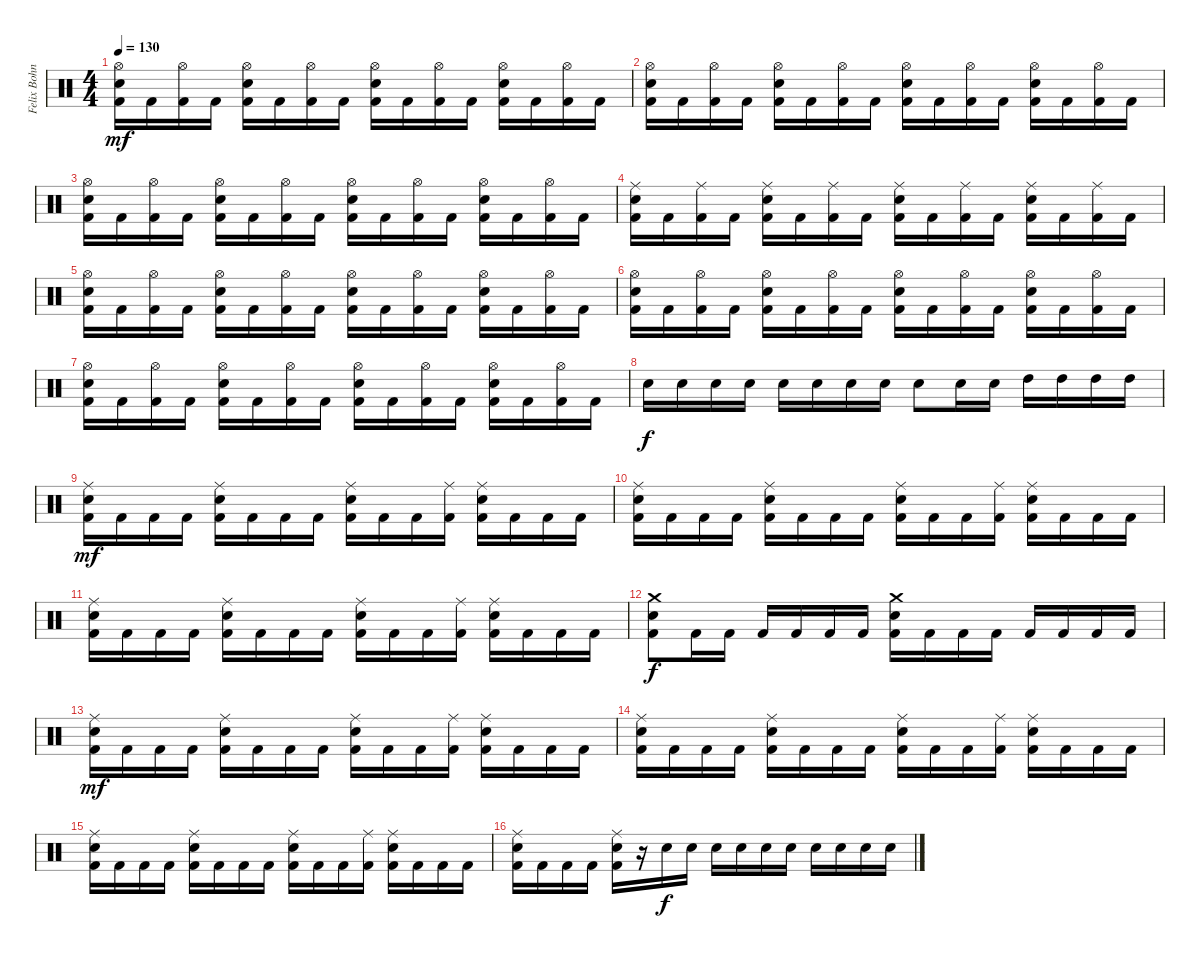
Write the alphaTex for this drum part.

\track ("Felix Bohnke" "Felix Bohn") {instrument percussion}
\staff {score}
\articulation defaults
\ts (4 4)
\tempo 130
\clef neutral
\ks c
("Hi-Hat (open)" "Electric Snare (hit)" "Kick (hit) 2").16{dy mf} "Kick (hit) 2".16 ("Hi-Hat (open)" "Kick (hit) 2").16 "Kick (hit) 2".16 ("Hi-Hat (open)" "Electric Snare (hit)" "Kick (hit) 2").16 "Kick (hit) 2".16 ("Hi-Hat (open)" "Kick (hit) 2").16 "Kick (hit) 2".16 ("Hi-Hat (open)" "Electric Snare (hit)" "Kick (hit) 2").16 "Kick (hit) 2".16 ("Hi-Hat (open)" "Kick (hit) 2").16 "Kick (hit) 2".16 ("Hi-Hat (open)" "Electric Snare (hit)" "Kick (hit) 2").16 "Kick (hit) 2".16 ("Hi-Hat (open)" "Kick (hit) 2").16 "Kick (hit) 2".16 |
("Hi-Hat (open)" "Electric Snare (hit)" "Kick (hit) 2").16 "Kick (hit) 2".16 ("Hi-Hat (open)" "Kick (hit) 2").16 "Kick (hit) 2".16 ("Hi-Hat (open)" "Electric Snare (hit)" "Kick (hit) 2").16 "Kick (hit) 2".16 ("Hi-Hat (open)" "Kick (hit) 2").16 "Kick (hit) 2".16 ("Hi-Hat (open)" "Electric Snare (hit)" "Kick (hit) 2").16 "Kick (hit) 2".16 ("Hi-Hat (open)" "Kick (hit) 2").16 "Kick (hit) 2".16 ("Hi-Hat (open)" "Electric Snare (hit)" "Kick (hit) 2").16 "Kick (hit) 2".16 ("Hi-Hat (open)" "Kick (hit) 2").16 "Kick (hit) 2".16 |
("Hi-Hat (open)" "Electric Snare (hit)" "Kick (hit) 2").16 "Kick (hit) 2".16 ("Hi-Hat (open)" "Kick (hit) 2").16 "Kick (hit) 2".16 ("Hi-Hat (open)" "Electric Snare (hit)" "Kick (hit) 2").16 "Kick (hit) 2".16 ("Hi-Hat (open)" "Kick (hit) 2").16 "Kick (hit) 2".16 ("Hi-Hat (open)" "Electric Snare (hit)" "Kick (hit) 2").16 "Kick (hit) 2".16 ("Hi-Hat (open)" "Kick (hit) 2").16 "Kick (hit) 2".16 ("Hi-Hat (open)" "Electric Snare (hit)" "Kick (hit) 2").16 "Kick (hit) 2".16 ("Hi-Hat (open)" "Kick (hit) 2").16 "Kick (hit) 2".16 |
("Electric Snare (hit)" "Ride (middle)" "Kick (hit) 2").16 "Kick (hit) 2".16 ("Ride (middle)" "Kick (hit) 2").16 "Kick (hit) 2".16 ("Electric Snare (hit)" "Ride (middle)" "Kick (hit) 2").16 "Kick (hit) 2".16 ("Ride (middle)" "Kick (hit) 2").16 "Kick (hit) 2".16 ("Electric Snare (hit)" "Ride (middle)" "Kick (hit) 2").16 "Kick (hit) 2".16 ("Ride (middle)" "Kick (hit) 2").16 "Kick (hit) 2".16 ("Electric Snare (hit)" "Ride (middle)" "Kick (hit) 2").16 "Kick (hit) 2".16 ("Ride (middle)" "Kick (hit) 2").16 "Kick (hit) 2".16 |
("Hi-Hat (open)" "Electric Snare (hit)" "Kick (hit) 2").16 "Kick (hit) 2".16 ("Hi-Hat (open)" "Kick (hit) 2").16 "Kick (hit) 2".16 ("Hi-Hat (open)" "Electric Snare (hit)" "Kick (hit) 2").16 "Kick (hit) 2".16 ("Hi-Hat (open)" "Kick (hit) 2").16 "Kick (hit) 2".16 ("Hi-Hat (open)" "Electric Snare (hit)" "Kick (hit) 2").16 "Kick (hit) 2".16 ("Hi-Hat (open)" "Kick (hit) 2").16 "Kick (hit) 2".16 ("Hi-Hat (open)" "Electric Snare (hit)" "Kick (hit) 2").16 "Kick (hit) 2".16 ("Hi-Hat (open)" "Kick (hit) 2").16 "Kick (hit) 2".16 |
("Hi-Hat (open)" "Electric Snare (hit)" "Kick (hit) 2").16 "Kick (hit) 2".16 ("Hi-Hat (open)" "Kick (hit) 2").16 "Kick (hit) 2".16 ("Hi-Hat (open)" "Electric Snare (hit)" "Kick (hit) 2").16 "Kick (hit) 2".16 ("Hi-Hat (open)" "Kick (hit) 2").16 "Kick (hit) 2".16 ("Hi-Hat (open)" "Electric Snare (hit)" "Kick (hit) 2").16 "Kick (hit) 2".16 ("Hi-Hat (open)" "Kick (hit) 2").16 "Kick (hit) 2".16 ("Hi-Hat (open)" "Electric Snare (hit)" "Kick (hit) 2").16 "Kick (hit) 2".16 ("Hi-Hat (open)" "Kick (hit) 2").16 "Kick (hit) 2".16 |
("Hi-Hat (open)" "Electric Snare (hit)" "Kick (hit) 2").16 "Kick (hit) 2".16 ("Hi-Hat (open)" "Kick (hit) 2").16 "Kick (hit) 2".16 ("Hi-Hat (open)" "Electric Snare (hit)" "Kick (hit) 2").16 "Kick (hit) 2".16 ("Hi-Hat (open)" "Kick (hit) 2").16 "Kick (hit) 2".16 ("Hi-Hat (open)" "Electric Snare (hit)" "Kick (hit) 2").16 "Kick (hit) 2".16 ("Hi-Hat (open)" "Kick (hit) 2").16 "Kick (hit) 2".16 ("Hi-Hat (open)" "Electric Snare (hit)" "Kick (hit) 2").16 "Kick (hit) 2".16 ("Hi-Hat (open)" "Kick (hit) 2").16 "Kick (hit) 2".16 |
"Electric Snare (hit)".16{dy f} "Electric Snare (hit)".16 "Electric Snare (hit)".16 "Electric Snare (hit)".16 "Electric Snare (hit)".16 "Electric Snare (hit)".16 "Electric Snare (hit)".16 "Electric Snare (hit)".16 "Electric Snare (hit)".8 "Electric Snare (hit)".16 "Electric Snare (hit)".16 "High Tom (hit)".16 "High Tom (hit)".16 "High Tom (hit)".16 "High Tom (hit)".16 |
("Ride (middle)" "Electric Snare (hit)" "Kick (hit) 2").16{dy mf} "Kick (hit) 2".16 "Kick (hit) 2".16 "Kick (hit) 2".16 ("Ride (middle)" "Electric Snare (hit)" "Kick (hit) 2").16 "Kick (hit) 2".16 "Kick (hit) 2".16 "Kick (hit) 2".16 ("Ride (middle)" "Electric Snare (hit)" "Kick (hit) 2").16 "Kick (hit) 2".16 "Kick (hit) 2".16 ("Ride (middle)" "Kick (hit) 2").16 ("Ride (middle)" "Electric Snare (hit)" "Kick (hit) 2").16 "Kick (hit) 2".16 "Kick (hit) 2".16 "Kick (hit) 2".16 |
("Ride (middle)" "Electric Snare (hit)" "Kick (hit) 2").16 "Kick (hit) 2".16 "Kick (hit) 2".16 "Kick (hit) 2".16 ("Ride (middle)" "Electric Snare (hit)" "Kick (hit) 2").16 "Kick (hit) 2".16 "Kick (hit) 2".16 "Kick (hit) 2".16 ("Ride (middle)" "Electric Snare (hit)" "Kick (hit) 2").16 "Kick (hit) 2".16 "Kick (hit) 2".16 ("Ride (middle)" "Kick (hit) 2").16 ("Ride (middle)" "Electric Snare (hit)" "Kick (hit) 2").16 "Kick (hit) 2".16 "Kick (hit) 2".16 "Kick (hit) 2".16 |
("Ride (middle)" "Electric Snare (hit)" "Kick (hit) 2").16 "Kick (hit) 2".16 "Kick (hit) 2".16 "Kick (hit) 2".16 ("Ride (middle)" "Electric Snare (hit)" "Kick (hit) 2").16 "Kick (hit) 2".16 "Kick (hit) 2".16 "Kick (hit) 2".16 ("Ride (middle)" "Electric Snare (hit)" "Kick (hit) 2").16 "Kick (hit) 2".16 "Kick (hit) 2".16 ("Ride (middle)" "Kick (hit) 2").16 ("Ride (middle)" "Electric Snare (hit)" "Kick (hit) 2").16 "Kick (hit) 2".16 "Kick (hit) 2".16 "Kick (hit) 2".16 |
("Crash medium (hit)" "Electric Snare (hit)" "Kick (hit) 2").8{dy f} "Kick (hit) 2".16 "Kick (hit) 2".16 "Kick (hit) 2".16 "Kick (hit) 2".16 "Kick (hit) 2".16 "Kick (hit) 2".16 ("Crash medium (hit)" "Electric Snare (hit)" "Kick (hit) 2").16 "Kick (hit) 2".16 "Kick (hit) 2".16 "Kick (hit) 2".16 "Kick (hit) 2".16 "Kick (hit) 2".16 "Kick (hit) 2".16 "Kick (hit) 2".16 |
("Ride (middle)" "Electric Snare (hit)" "Kick (hit) 2").16{dy mf} "Kick (hit) 2".16 "Kick (hit) 2".16 "Kick (hit) 2".16 ("Ride (middle)" "Electric Snare (hit)" "Kick (hit) 2").16 "Kick (hit) 2".16 "Kick (hit) 2".16 "Kick (hit) 2".16 ("Ride (middle)" "Electric Snare (hit)" "Kick (hit) 2").16 "Kick (hit) 2".16 "Kick (hit) 2".16 ("Ride (middle)" "Kick (hit) 2").16 ("Ride (middle)" "Electric Snare (hit)" "Kick (hit) 2").16 "Kick (hit) 2".16 "Kick (hit) 2".16 "Kick (hit) 2".16 |
("Ride (middle)" "Electric Snare (hit)" "Kick (hit) 2").16 "Kick (hit) 2".16 "Kick (hit) 2".16 "Kick (hit) 2".16 ("Ride (middle)" "Electric Snare (hit)" "Kick (hit) 2").16 "Kick (hit) 2".16 "Kick (hit) 2".16 "Kick (hit) 2".16 ("Ride (middle)" "Electric Snare (hit)" "Kick (hit) 2").16 "Kick (hit) 2".16 "Kick (hit) 2".16 ("Ride (middle)" "Kick (hit) 2").16 ("Ride (middle)" "Electric Snare (hit)" "Kick (hit) 2").16 "Kick (hit) 2".16 "Kick (hit) 2".16 "Kick (hit) 2".16 |
("Ride (middle)" "Electric Snare (hit)" "Kick (hit) 2").16 "Kick (hit) 2".16 "Kick (hit) 2".16 "Kick (hit) 2".16 ("Ride (middle)" "Electric Snare (hit)" "Kick (hit) 2").16 "Kick (hit) 2".16 "Kick (hit) 2".16 "Kick (hit) 2".16 ("Ride (middle)" "Electric Snare (hit)" "Kick (hit) 2").16 "Kick (hit) 2".16 "Kick (hit) 2".16 ("Ride (middle)" "Kick (hit) 2").16 ("Ride (middle)" "Electric Snare (hit)" "Kick (hit) 2").16 "Kick (hit) 2".16 "Kick (hit) 2".16 "Kick (hit) 2".16 |
("Ride (middle)" "Electric Snare (hit)" "Kick (hit) 2").16 "Kick (hit) 2".16 "Kick (hit) 2".16 "Kick (hit) 2".16 ("Ride (middle)" "Electric Snare (hit)" "Kick (hit) 2").16 r.16 "Electric Snare (hit)".16{dy f} "Electric Snare (hit)".16 "Electric Snare (hit)".16 "Electric Snare (hit)".16 "Electric Snare (hit)".16 "Electric Snare (hit)".16 "Electric Snare (hit)".16 "Electric Snare (hit)".16 "Electric Snare (hit)".16 "Electric Snare (hit)".16
